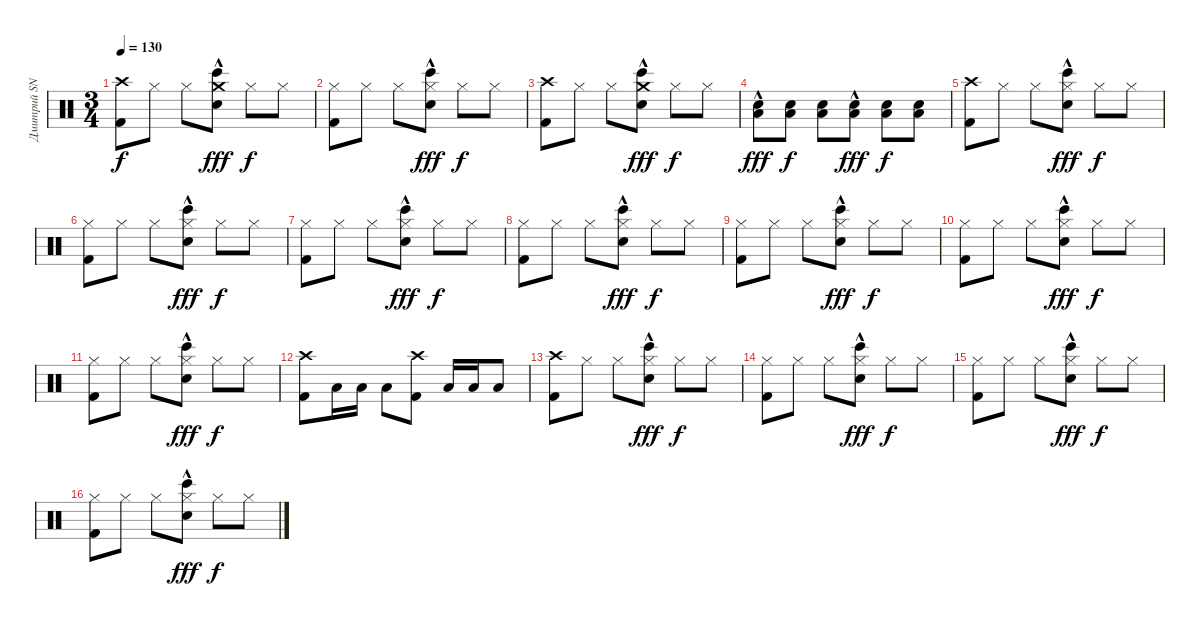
\track ("Дмитрий SNAKE Хакимов" "Дмитрий SN") {instrument percussion}
\staff {score}
\articulation defaults
\ts (3 4)
\tempo 130
\clef neutral
\ks c
("Crash high (hit)" "Kick (hit) 2").8{dy f} "Hi-Hat (closed)".8 "Hi-Hat (closed)".8 ("Crash medium (hit)" "Snare (hit) 2"{hac} "Bongo High (hit)").8{dy fff} "Hi-Hat (closed)".8{dy f} "Hi-Hat (closed)".8 |
("Hi-Hat (closed)" "Kick (hit) 2").8 "Hi-Hat (closed)".8 "Hi-Hat (closed)".8 ("Hi-Hat (closed)" "Snare (hit) 2"{hac} "Bongo High (hit)").8{dy fff} "Hi-Hat (closed)".8{dy f} "Hi-Hat (closed)".8 |
("Crash high (hit)" "Kick (hit) 2").8 "Hi-Hat (closed)".8 "Hi-Hat (closed)".8 ("Crash medium (hit)" "Snare (hit) 2"{hac} "Bongo High (hit)").8{dy fff} "Hi-Hat (closed)".8{dy f} "Hi-Hat (closed)".8 |
("Snare (hit) 2"{hac} "Low Tom (hit)").8{dy fff} ("Snare (hit) 2" "Low Tom (hit)").8{dy f} ("Snare (hit) 2" "Low Tom (hit)").8 ("Snare (hit) 2"{hac} "Low Tom (hit)").8{dy fff} ("Snare (hit) 2" "Low Tom (hit)").8{dy f} ("Snare (hit) 2" "Low Tom (hit)").8 |
("Crash high (hit)" "Kick (hit) 2").8 "Hi-Hat (closed)".8 "Hi-Hat (closed)".8 ("Hi-Hat (closed)" "Snare (hit) 2"{hac} "Bongo High (hit)").8{dy fff} "Hi-Hat (closed)".8{dy f} "Hi-Hat (closed)".8 |
("Hi-Hat (closed)" "Kick (hit) 2").8 "Hi-Hat (closed)".8 "Hi-Hat (closed)".8 ("Hi-Hat (closed)" "Snare (hit) 2"{hac} "Bongo High (hit)").8{dy fff} "Hi-Hat (closed)".8{dy f} "Hi-Hat (closed)".8 |
("Hi-Hat (closed)" "Kick (hit) 2").8 "Hi-Hat (closed)".8 "Hi-Hat (closed)".8 ("Hi-Hat (closed)" "Snare (hit) 2"{hac} "Bongo High (hit)").8{dy fff} "Hi-Hat (closed)".8{dy f} "Hi-Hat (closed)".8 |
("Hi-Hat (closed)" "Kick (hit) 2").8 "Hi-Hat (closed)".8 "Hi-Hat (closed)".8 ("Hi-Hat (closed)" "Snare (hit) 2"{hac} "Bongo High (hit)").8{dy fff} "Hi-Hat (closed)".8{dy f} "Hi-Hat (closed)".8 |
("Hi-Hat (closed)" "Kick (hit) 2").8 "Hi-Hat (closed)".8 "Hi-Hat (closed)".8 ("Hi-Hat (closed)" "Snare (hit) 2"{hac} "Bongo High (hit)").8{dy fff} "Hi-Hat (closed)".8{dy f} "Hi-Hat (closed)".8 |
("Hi-Hat (closed)" "Kick (hit) 2").8 "Hi-Hat (closed)".8 "Hi-Hat (closed)".8 ("Hi-Hat (closed)" "Snare (hit) 2"{hac} "Bongo High (hit)").8{dy fff} "Hi-Hat (closed)".8{dy f} "Hi-Hat (closed)".8 |
("Hi-Hat (closed)" "Kick (hit) 2").8 "Hi-Hat (closed)".8 "Hi-Hat (closed)".8 ("Hi-Hat (closed)" "Snare (hit) 2"{hac} "Bongo High (hit)").8{dy fff} "Hi-Hat (closed)".8{dy f} "Hi-Hat (closed)".8 |
("Crash high (hit)" "Kick (hit) 2").8 "Low Tom (hit)".16 "Low Tom (hit)".16 "Low Tom (hit)".8 ("Crash high (hit)" "Kick (hit) 2").8 "Low Tom (hit)".16 "Low Tom (hit)".16 "Low Tom (hit)".8 |
("Crash high (hit)" "Kick (hit) 2").8 "Hi-Hat (closed)".8 "Hi-Hat (closed)".8 ("Hi-Hat (closed)" "Snare (hit) 2"{hac} "Bongo High (hit)").8{dy fff} "Hi-Hat (closed)".8{dy f} "Hi-Hat (closed)".8 |
("Hi-Hat (closed)" "Kick (hit) 2").8 "Hi-Hat (closed)".8 "Hi-Hat (closed)".8 ("Hi-Hat (closed)" "Snare (hit) 2"{hac} "Bongo High (hit)").8{dy fff} "Hi-Hat (closed)".8{dy f} "Hi-Hat (closed)".8 |
("Hi-Hat (closed)" "Kick (hit) 2").8 "Hi-Hat (closed)".8 "Hi-Hat (closed)".8 ("Hi-Hat (closed)" "Snare (hit) 2"{hac} "Bongo High (hit)").8{dy fff} "Hi-Hat (closed)".8{dy f} "Hi-Hat (closed)".8 |
("Hi-Hat (closed)" "Kick (hit) 2").8 "Hi-Hat (closed)".8 "Hi-Hat (closed)".8 ("Hi-Hat (closed)" "Snare (hit) 2"{hac} "Bongo High (hit)").8{dy fff} "Hi-Hat (closed)".8{dy f} "Hi-Hat (closed)".8
